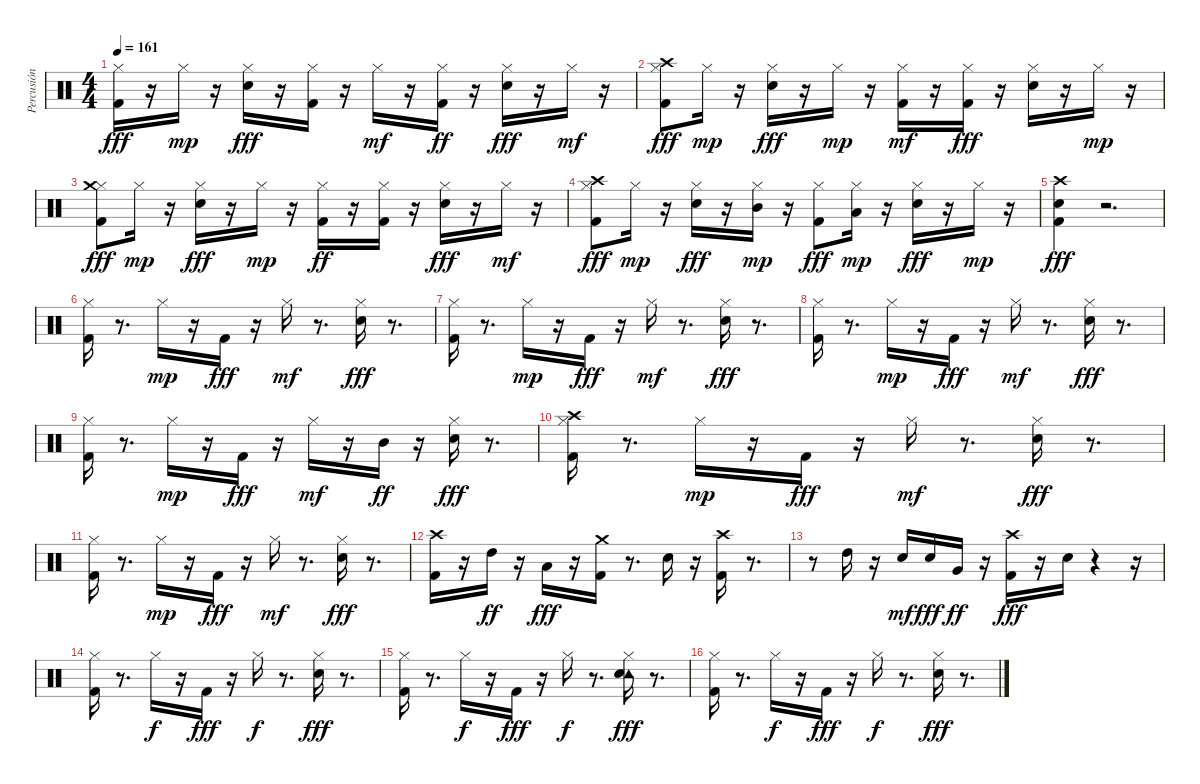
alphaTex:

\track ("Percusión" "Percusión") {instrument percussion}
\staff {score}
\articulation defaults
\ts (4 4)
\tempo 161
\clef neutral
\ks c
("Hi-Hat (closed)" "Kick (hit) 2").16{dy fff} r.16 "Hi-Hat (closed)".16{dy mp} r.16 ("Hi-Hat (closed)" "Snare (hit) 2").16{dy fff} r.16 ("Hi-Hat (closed)" "Kick (hit) 2").16 r.16 "Hi-Hat (closed)".16{dy mf} r.16 ("Hi-Hat (closed)" "Kick (hit) 2").16{dy ff} r.16 ("Hi-Hat (closed)" "Snare (hit) 2").16{dy fff} r.16 "Hi-Hat (closed)".16{dy mf} r.16 |
("Hi-Hat (closed)" "Crash high (hit)" "Kick (hit) 2").8{dy fff} "Hi-Hat (closed)".16{dy mp} r.16 ("Hi-Hat (closed)" "Snare (hit) 2").16{dy fff} r.16 "Hi-Hat (closed)".16{dy mp} r.16 ("Hi-Hat (closed)" "Kick (hit) 2").16{dy mf} r.16 ("Hi-Hat (closed)" "Kick (hit) 2").16{dy fff} r.16 ("Hi-Hat (closed)" "Snare (hit) 2").16 r.16 "Hi-Hat (closed)".16{dy mp} r.16 |
("Hi-Hat (closed)" "Crash medium (hit)" "Kick (hit) 2").8{dy fff} "Hi-Hat (closed)".16{dy mp} r.16 ("Hi-Hat (closed)" "Snare (hit) 2").16{dy fff} r.16 "Hi-Hat (closed)".16{dy mp} r.16 ("Hi-Hat (closed)" "Kick (hit) 2").16{dy ff} r.16 ("Hi-Hat (closed)" "Kick (hit) 2").16 r.16 ("Hi-Hat (closed)" "Snare (hit) 2").16{dy fff} r.16 "Hi-Hat (closed)".16{dy mf} r.16 |
("Hi-Hat (closed)" "Crash high (hit)" "Kick (hit) 2").8{dy fff} "Hi-Hat (closed)".16{dy mp} r.16 ("Hi-Hat (closed)" "Snare (hit) 2").16{dy fff} r.16 ("Mid Tom (hit)" "Hi-Hat (closed)").16{dy mp} r.16 ("Hi-Hat (closed)" "Kick (hit) 2").8{dy fff} ("Low Tom (hit)" "Hi-Hat (closed)").16{dy mp} r.16 ("Hi-Hat (closed)" "Snare (hit) 2").16{dy fff} r.16 "Hi-Hat (closed)".16{dy mp} r.16 |
("Crash high (hit)" "Kick (hit) 2" "Snare (hit) 2").4{dy fff} r.2{d} |
("Hi-Hat (closed)" "Kick (hit) 2").16 r.8{d} "Hi-Hat (closed)".16{dy mp} r.16 "Kick (hit) 2".16{dy fff} r.16 "Hi-Hat (closed)".16{dy mf} r.8{d} ("Hi-Hat (closed)" "Snare (hit) 2").16{dy fff} r.8{d} |
("Hi-Hat (closed)" "Kick (hit) 2").16 r.8{d} "Hi-Hat (closed)".16{dy mp} r.16 "Kick (hit) 2".16{dy fff} r.16 "Hi-Hat (closed)".16{dy mf} r.8{d} ("Hi-Hat (closed)" "Snare (hit) 2").16{dy fff} r.8{d} |
("Hi-Hat (closed)" "Kick (hit) 2").16 r.8{d} "Hi-Hat (closed)".16{dy mp} r.16 "Kick (hit) 2".16{dy fff} r.16 "Hi-Hat (closed)".16{dy mf} r.8{d} ("Hi-Hat (closed)" "Snare (hit) 2").16{dy fff} r.8{d} |
("Hi-Hat (closed)" "Kick (hit) 2").16 r.8{d} "Hi-Hat (closed)".16{dy mp} r.16 "Kick (hit) 2".16{dy fff} r.16 "Hi-Hat (closed)".16{dy mf} r.16 "Mid Tom (hit)".16{dy ff} r.16 ("Hi-Hat (closed)" "Snare (hit) 2").16{dy fff} r.8{d} |
("Hi-Hat (closed)" "Crash high (hit)" "Kick (hit) 2").16 r.8{d} "Hi-Hat (closed)".16{dy mp} r.16 "Kick (hit) 2".16{dy fff} r.16 "Hi-Hat (closed)".16{dy mf} r.8{d} ("Hi-Hat (closed)" "Snare (hit) 2").16{dy fff} r.8{d} |
("Hi-Hat (closed)" "Kick (hit) 2").16 r.8{d} "Hi-Hat (closed)".16{dy mp} r.16 "Kick (hit) 2".16{dy fff} r.16 "Hi-Hat (closed)".16{dy mf} r.8{d} ("Hi-Hat (closed)" "Snare (hit) 2").16{dy fff} r.8{d} |
("Crash high (hit)" "Kick (hit) 2").16 r.16 "High Tom (hit)".16{dy ff} r.16 "Low Tom (hit)".16{dy fff} r.16 ("Crash medium (hit)" "Kick (hit) 2").16 r.8{d} "Snare (hit) 2".16 r.16 ("Crash high (hit)" "Kick (hit) 2").16 r.8{d} |
r.8 "High Tom (hit)".16 r.16 "Snare (hit) 2".16{dy mf} "Snare (hit) 2".16{dy fff} "Very Low Tom (hit)".16{dy ff} r.16 ("Crash high (hit)" "Kick (hit) 2").16{dy fff} r.16 "Snare (hit) 2".16 r.4 r.16 |
("Hi-Hat (closed)" "Kick (hit) 2").16 r.8{d} "Hi-Hat (closed)".16{dy f} r.16 "Kick (hit) 2".16{dy fff} r.16 "Hi-Hat (closed)".16{dy f} r.8{d} ("Hi-Hat (closed)" "Snare (hit) 2").16{dy fff} r.8{d} |
("Hi-Hat (closed)" "Kick (hit) 2").16 r.8{d} "Hi-Hat (closed)".16{dy f} r.16 "Kick (hit) 2".16{dy fff} r.16 "Hi-Hat (closed)".16{dy f} r.8{d} ("Hi-Hat (closed)" "Tambourine (hit)" "Snare (hit) 2").16{dy fff} r.8{d} |
("Hi-Hat (closed)" "Kick (hit) 2").16 r.8{d} "Hi-Hat (closed)".16{dy f} r.16 "Kick (hit) 2".16{dy fff} r.16 "Hi-Hat (closed)".16{dy f} r.8{d} ("Hi-Hat (closed)" "Snare (hit) 2").16{dy fff} r.8{d}
